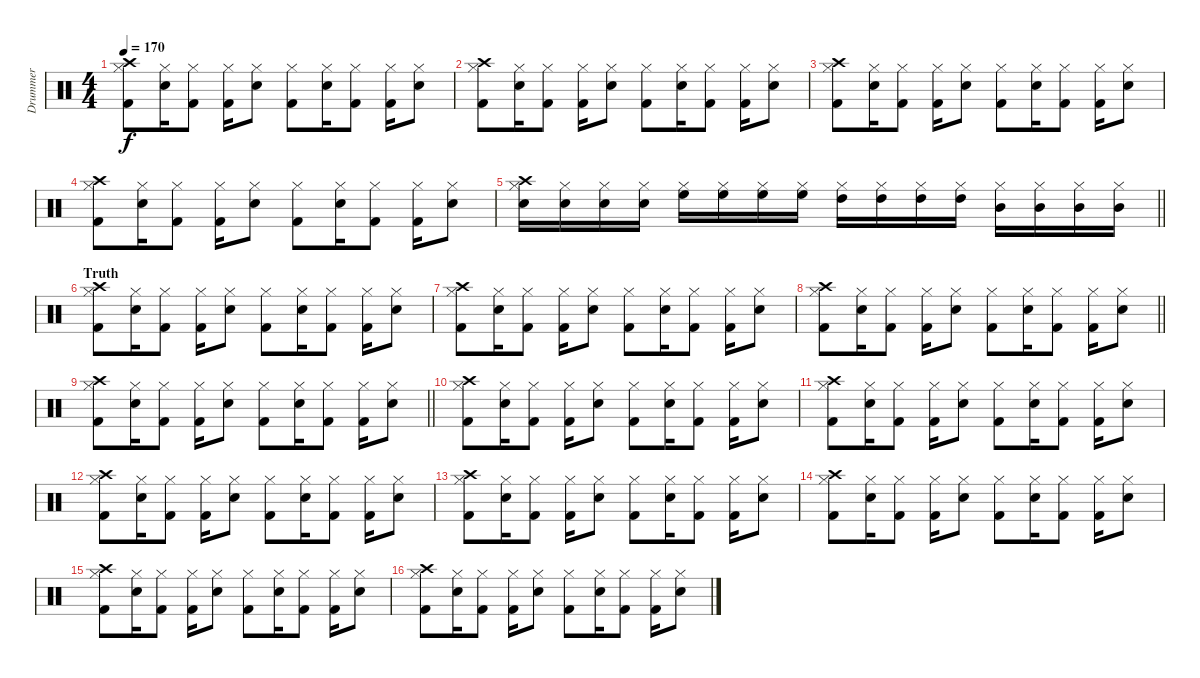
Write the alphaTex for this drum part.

\track ("Drummer" "Drummer") {instrument percussion}
\staff {score}
\articulation defaults
\ts (4 4)
\tempo 170
\clef neutral
\ks c
("Kick (hit) 2" "Hi-Hat (closed)" "Crash high (hit)").8{dy f} ("Electric Snare (hit)" "Hi-Hat (closed)").16 ("Kick (hit) 2" "Hi-Hat (closed)").8 ("Kick (hit) 2" "Hi-Hat (closed)").16 ("Electric Snare (hit)" "Hi-Hat (closed)").8 ("Kick (hit) 2" "Hi-Hat (closed)").8 ("Electric Snare (hit)" "Hi-Hat (closed)").16 ("Kick (hit) 2" "Hi-Hat (closed)").8 ("Kick (hit) 2" "Hi-Hat (closed)").16 ("Electric Snare (hit)" "Hi-Hat (closed)").8 |
("Kick (hit) 2" "Hi-Hat (closed)" "Crash high (hit)").8 ("Electric Snare (hit)" "Hi-Hat (closed)").16 ("Kick (hit) 2" "Hi-Hat (closed)").8 ("Kick (hit) 2" "Hi-Hat (closed)").16 ("Electric Snare (hit)" "Hi-Hat (closed)").8 ("Kick (hit) 2" "Hi-Hat (closed)").8 ("Electric Snare (hit)" "Hi-Hat (closed)").16 ("Kick (hit) 2" "Hi-Hat (closed)").8 ("Kick (hit) 2" "Hi-Hat (closed)").16 ("Electric Snare (hit)" "Hi-Hat (closed)").8 |
("Kick (hit) 2" "Hi-Hat (closed)" "Crash high (hit)").8 ("Electric Snare (hit)" "Hi-Hat (closed)").16 ("Kick (hit) 2" "Hi-Hat (closed)").8 ("Kick (hit) 2" "Hi-Hat (closed)").16 ("Electric Snare (hit)" "Hi-Hat (closed)").8 ("Kick (hit) 2" "Hi-Hat (closed)").8 ("Electric Snare (hit)" "Hi-Hat (closed)").16 ("Kick (hit) 2" "Hi-Hat (closed)").8 ("Kick (hit) 2" "Hi-Hat (closed)").16 ("Electric Snare (hit)" "Hi-Hat (closed)").8 |
("Kick (hit) 2" "Hi-Hat (closed)" "Crash high (hit)").8 ("Electric Snare (hit)" "Hi-Hat (closed)").16 ("Kick (hit) 2" "Hi-Hat (closed)").8 ("Kick (hit) 2" "Hi-Hat (closed)").16 ("Electric Snare (hit)" "Hi-Hat (closed)").8 ("Kick (hit) 2" "Hi-Hat (closed)").8 ("Electric Snare (hit)" "Hi-Hat (closed)").16 ("Kick (hit) 2" "Hi-Hat (closed)").8 ("Kick (hit) 2" "Hi-Hat (closed)").16 ("Electric Snare (hit)" "Hi-Hat (closed)").8 |
\barLineRight lightlight
("Electric Snare (hit)" "Hi-Hat (closed)" "Crash high (hit)").16 ("Electric Snare (hit)" "Hi-Hat (closed)").16 ("Snare (hit) 2" "Hi-Hat (closed)").16 ("Snare (hit) 2" "Hi-Hat (closed)").16 ("High Floor Tom (hit)" "Hi-Hat (closed)").16 ("High Floor Tom (hit)" "Hi-Hat (closed)").16 ("High Floor Tom (hit)" "Hi-Hat (closed)").16 ("High Floor Tom (hit)" "Hi-Hat (closed)").16 ("High Tom (hit)" "Hi-Hat (closed)").16 ("High Tom (hit)" "Hi-Hat (closed)").16 ("High Tom (hit)" "Hi-Hat (closed)").16 ("High Tom (hit)" "Hi-Hat (closed)").16 ("Mid Tom (hit)" "Hi-Hat (closed)").16 ("Mid Tom (hit)" "Hi-Hat (closed)").16 ("Mid Tom (hit)" "Hi-Hat (closed)").16 ("Mid Tom (hit)" "Hi-Hat (closed)").16 |
\section ("" "Truth")
("Kick (hit) 2" "Hi-Hat (closed)" "Crash high (hit)").8 ("Electric Snare (hit)" "Hi-Hat (closed)").16 ("Kick (hit) 2" "Hi-Hat (closed)").8 ("Kick (hit) 2" "Hi-Hat (closed)").16 ("Electric Snare (hit)" "Hi-Hat (closed)").8 ("Kick (hit) 2" "Hi-Hat (closed)").8 ("Electric Snare (hit)" "Hi-Hat (closed)").16 ("Kick (hit) 2" "Hi-Hat (closed)").8 ("Kick (hit) 2" "Hi-Hat (closed)").16 ("Electric Snare (hit)" "Hi-Hat (closed)").8 |
("Kick (hit) 2" "Hi-Hat (closed)" "Crash high (hit)").8 ("Electric Snare (hit)" "Hi-Hat (closed)").16 ("Kick (hit) 2" "Hi-Hat (closed)").8 ("Kick (hit) 2" "Hi-Hat (closed)").16 ("Electric Snare (hit)" "Hi-Hat (closed)").8 ("Kick (hit) 2" "Hi-Hat (closed)").8 ("Electric Snare (hit)" "Hi-Hat (closed)").16 ("Kick (hit) 2" "Hi-Hat (closed)").8 ("Kick (hit) 2" "Hi-Hat (closed)").16 ("Electric Snare (hit)" "Hi-Hat (closed)").8 |
\barLineRight lightlight
("Kick (hit) 2" "Hi-Hat (closed)" "Crash high (hit)").8 ("Electric Snare (hit)" "Hi-Hat (closed)").16 ("Kick (hit) 2" "Hi-Hat (closed)").8 ("Kick (hit) 2" "Hi-Hat (closed)").16 ("Electric Snare (hit)" "Hi-Hat (closed)").8 ("Kick (hit) 2" "Hi-Hat (closed)").8 ("Electric Snare (hit)" "Hi-Hat (closed)").16 ("Kick (hit) 2" "Hi-Hat (closed)").8 ("Kick (hit) 2" "Hi-Hat (closed)").16 ("Electric Snare (hit)" "Hi-Hat (closed)").8 |
\barLineRight lightlight
("Kick (hit) 2" "Hi-Hat (closed)" "Crash high (hit)").8 ("Electric Snare (hit)" "Hi-Hat (closed)").16 ("Kick (hit) 2" "Hi-Hat (closed)").8 ("Kick (hit) 2" "Hi-Hat (closed)").16 ("Electric Snare (hit)" "Hi-Hat (closed)").8 ("Kick (hit) 2" "Hi-Hat (closed)").8 ("Electric Snare (hit)" "Hi-Hat (closed)").16 ("Kick (hit) 2" "Hi-Hat (closed)").8 ("Kick (hit) 2" "Hi-Hat (closed)").16 ("Electric Snare (hit)" "Hi-Hat (closed)").8 |
("Kick (hit) 2" "Hi-Hat (closed)" "Crash high (hit)").8 ("Electric Snare (hit)" "Hi-Hat (closed)").16 ("Kick (hit) 2" "Hi-Hat (closed)").8 ("Kick (hit) 2" "Hi-Hat (closed)").16 ("Electric Snare (hit)" "Hi-Hat (closed)").8 ("Kick (hit) 2" "Hi-Hat (closed)").8 ("Electric Snare (hit)" "Hi-Hat (closed)").16 ("Kick (hit) 2" "Hi-Hat (closed)").8 ("Kick (hit) 2" "Hi-Hat (closed)").16 ("Electric Snare (hit)" "Hi-Hat (closed)").8 |
("Kick (hit) 2" "Hi-Hat (closed)" "Crash high (hit)").8 ("Electric Snare (hit)" "Hi-Hat (closed)").16 ("Kick (hit) 2" "Hi-Hat (closed)").8 ("Kick (hit) 2" "Hi-Hat (closed)").16 ("Electric Snare (hit)" "Hi-Hat (closed)").8 ("Kick (hit) 2" "Hi-Hat (closed)").8 ("Electric Snare (hit)" "Hi-Hat (closed)").16 ("Kick (hit) 2" "Hi-Hat (closed)").8 ("Kick (hit) 2" "Hi-Hat (closed)").16 ("Electric Snare (hit)" "Hi-Hat (closed)").8 |
("Kick (hit) 2" "Hi-Hat (closed)" "Crash high (hit)").8 ("Electric Snare (hit)" "Hi-Hat (closed)").16 ("Kick (hit) 2" "Hi-Hat (closed)").8 ("Kick (hit) 2" "Hi-Hat (closed)").16 ("Electric Snare (hit)" "Hi-Hat (closed)").8 ("Kick (hit) 2" "Hi-Hat (closed)").8 ("Electric Snare (hit)" "Hi-Hat (closed)").16 ("Kick (hit) 2" "Hi-Hat (closed)").8 ("Kick (hit) 2" "Hi-Hat (closed)").16 ("Electric Snare (hit)" "Hi-Hat (closed)").8 |
("Kick (hit) 2" "Hi-Hat (closed)" "Crash high (hit)").8 ("Electric Snare (hit)" "Hi-Hat (closed)").16 ("Kick (hit) 2" "Hi-Hat (closed)").8 ("Kick (hit) 2" "Hi-Hat (closed)").16 ("Electric Snare (hit)" "Hi-Hat (closed)").8 ("Kick (hit) 2" "Hi-Hat (closed)").8 ("Electric Snare (hit)" "Hi-Hat (closed)").16 ("Kick (hit) 2" "Hi-Hat (closed)").8 ("Kick (hit) 2" "Hi-Hat (closed)").16 ("Electric Snare (hit)" "Hi-Hat (closed)").8 |
("Kick (hit) 2" "Hi-Hat (closed)" "Crash high (hit)").8 ("Electric Snare (hit)" "Hi-Hat (closed)").16 ("Kick (hit) 2" "Hi-Hat (closed)").8 ("Kick (hit) 2" "Hi-Hat (closed)").16 ("Electric Snare (hit)" "Hi-Hat (closed)").8 ("Kick (hit) 2" "Hi-Hat (closed)").8 ("Electric Snare (hit)" "Hi-Hat (closed)").16 ("Kick (hit) 2" "Hi-Hat (closed)").8 ("Kick (hit) 2" "Hi-Hat (closed)").16 ("Electric Snare (hit)" "Hi-Hat (closed)").8 |
("Kick (hit) 2" "Hi-Hat (closed)" "Crash high (hit)").8 ("Electric Snare (hit)" "Hi-Hat (closed)").16 ("Kick (hit) 2" "Hi-Hat (closed)").8 ("Kick (hit) 2" "Hi-Hat (closed)").16 ("Electric Snare (hit)" "Hi-Hat (closed)").8 ("Kick (hit) 2" "Hi-Hat (closed)").8 ("Electric Snare (hit)" "Hi-Hat (closed)").16 ("Kick (hit) 2" "Hi-Hat (closed)").8 ("Kick (hit) 2" "Hi-Hat (closed)").16 ("Electric Snare (hit)" "Hi-Hat (closed)").8 |
("Kick (hit) 2" "Hi-Hat (closed)" "Crash high (hit)").8 ("Electric Snare (hit)" "Hi-Hat (closed)").16 ("Kick (hit) 2" "Hi-Hat (closed)").8 ("Kick (hit) 2" "Hi-Hat (closed)").16 ("Electric Snare (hit)" "Hi-Hat (closed)").8 ("Kick (hit) 2" "Hi-Hat (closed)").8 ("Electric Snare (hit)" "Hi-Hat (closed)").16 ("Kick (hit) 2" "Hi-Hat (closed)").8 ("Kick (hit) 2" "Hi-Hat (closed)").16 ("Electric Snare (hit)" "Hi-Hat (closed)").8
